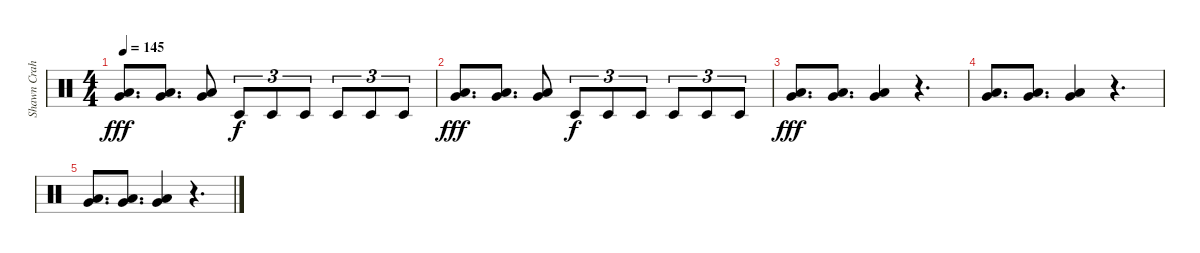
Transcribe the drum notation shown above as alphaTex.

\track ("Shawn Crahan" "Shawn Crah") {instrument percussion}
\staff {score}
\articulation defaults
\ts (4 4)
\tempo 145
\clef neutral
\ks c
("Very Low Tom (hit)" "Low Floor Tom (hit)").8{d dy fff} ("Very Low Tom (hit)" "Low Floor Tom (hit)").8{d} ("Very Low Tom (hit)" "Low Floor Tom (hit)").8 "Timbale low (hit)".8{tu (3 2) dy f} "Timbale low (hit)".8{tu (3 2)} "Timbale low (hit)".8{tu (3 2)} "Timbale low (hit)".8{tu (3 2)} "Timbale low (hit)".8{tu (3 2)} "Timbale low (hit)".8{tu (3 2)} |
("Very Low Tom (hit)" "Low Floor Tom (hit)").8{d dy fff} ("Very Low Tom (hit)" "Low Floor Tom (hit)").8{d} ("Very Low Tom (hit)" "Low Floor Tom (hit)").8 "Timbale low (hit)".8{tu (3 2) dy f} "Timbale low (hit)".8{tu (3 2)} "Timbale low (hit)".8{tu (3 2)} "Timbale low (hit)".8{tu (3 2)} "Timbale low (hit)".8{tu (3 2)} "Timbale low (hit)".8{tu (3 2)} |
("Very Low Tom (hit)" "Low Floor Tom (hit)").8{d dy fff} ("Very Low Tom (hit)" "Low Floor Tom (hit)").8{d} ("Very Low Tom (hit)" "Low Floor Tom (hit)").4 r.4{d} |
("Very Low Tom (hit)" "Low Floor Tom (hit)").8{d} ("Very Low Tom (hit)" "Low Floor Tom (hit)").8{d} ("Very Low Tom (hit)" "Low Floor Tom (hit)").4 r.4{d} |
("Very Low Tom (hit)" "Low Floor Tom (hit)").8{d} ("Very Low Tom (hit)" "Low Floor Tom (hit)").8{d} ("Very Low Tom (hit)" "Low Floor Tom (hit)").4 r.4{d}
